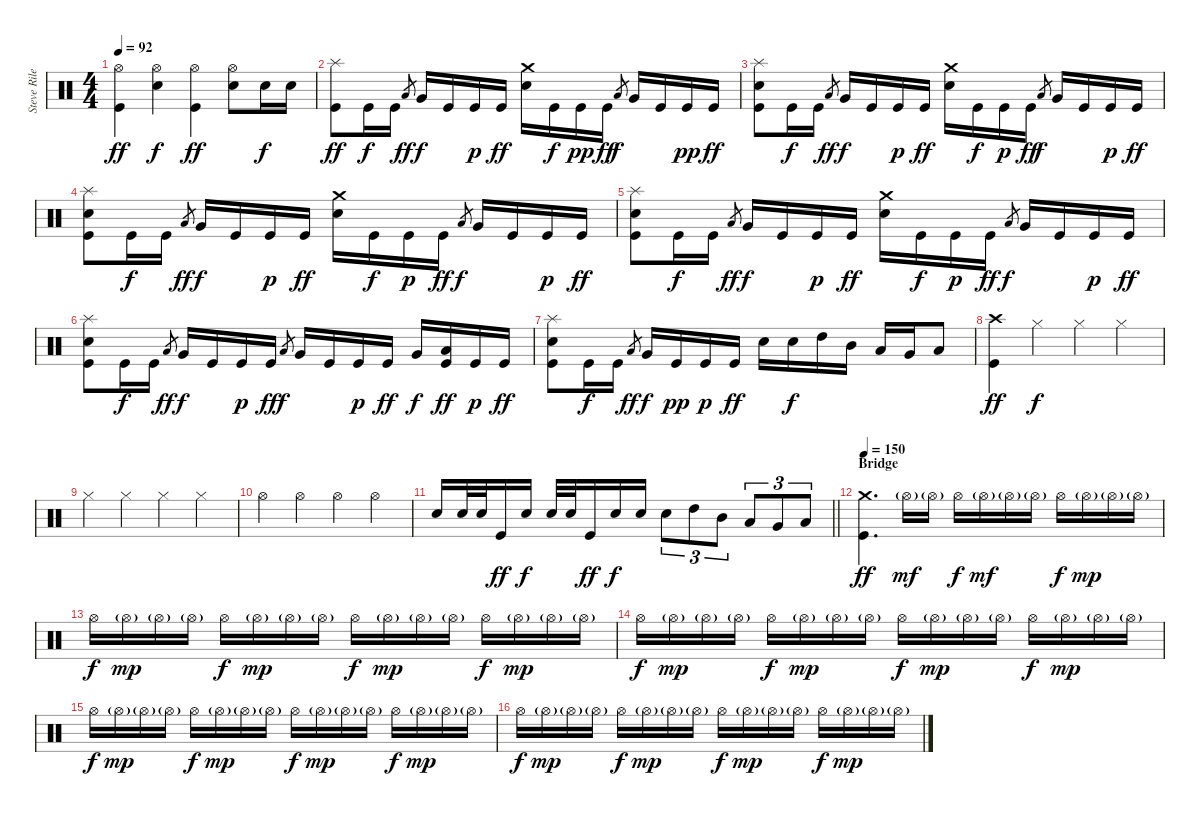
\track ("Steve Riley" "Steve Rile") {instrument percussion}
\staff {score}
\articulation defaults
\ts (4 4)
\tempo 92
\clef neutral
\ks c
("Hi-Hat (open)" "Kick (hit)").4{dy ff} ("Hi-Hat (open)" "Snare (hit) 2").4{dy f} ("Hi-Hat (open)" "Kick (hit)").4{dy ff} ("Hi-Hat (open)" "Snare (hit) 2").8 "Snare (hit) 2".16{dy f} "Snare (hit) 2".16 |
("Splash (hit)" "Kick (hit)").8{dy ff} "Kick (hit)".16{dy f} "Kick (hit)".16 "Low Floor Tom (hit)".8{gr dy ff} "Very Low Tom (hit)".16{dy f} "Kick (hit)".16 "Kick (hit)".16{dy p} "Kick (hit)".16{dy ff} ("Crash medium (hit)" "Snare (hit) 2").16 "Kick (hit)".16{dy f} "Kick (hit)".16{dy pp} "Kick (hit)".16{dy ff} "Low Floor Tom (hit)".8{gr dy f} "Very Low Tom (hit)".16 "Kick (hit)".16 "Kick (hit)".16{dy pp} "Kick (hit)".16{dy ff} |
("Splash (hit)" "Snare (hit) 2" "Kick (hit)").8 "Kick (hit)".16{dy f} "Kick (hit)".16 "Low Floor Tom (hit)".8{gr dy ff} "Very Low Tom (hit)".16{dy f} "Kick (hit)".16 "Kick (hit)".16{dy p} "Kick (hit)".16{dy ff} ("Crash medium (hit)" "Snare (hit) 2").16 "Kick (hit)".16{dy f} "Kick (hit)".16{dy p} "Kick (hit)".16{dy ff} "Low Floor Tom (hit)".8{gr dy f} "Very Low Tom (hit)".16 "Kick (hit)".16 "Kick (hit)".16{dy p} "Kick (hit)".16{dy ff} |
("Splash (hit)" "Snare (hit) 2" "Kick (hit)").8 "Kick (hit)".16{dy f} "Kick (hit)".16 "Low Floor Tom (hit)".8{gr dy ff} "Very Low Tom (hit)".16{dy f} "Kick (hit)".16 "Kick (hit)".16{dy p} "Kick (hit)".16{dy ff} ("Crash medium (hit)" "Snare (hit) 2").16 "Kick (hit)".16{dy f} "Kick (hit)".16{dy p} "Kick (hit)".16{dy ff} "Low Floor Tom (hit)".8{gr dy f} "Very Low Tom (hit)".16 "Kick (hit)".16 "Kick (hit)".16{dy p} "Kick (hit)".16{dy ff} |
("Splash (hit)" "Snare (hit) 2" "Kick (hit)").8 "Kick (hit)".16{dy f} "Kick (hit)".16 "Low Floor Tom (hit)".8{gr dy ff} "Very Low Tom (hit)".16{dy f} "Kick (hit)".16 "Kick (hit)".16{dy p} "Kick (hit)".16{dy ff} ("Crash medium (hit)" "Snare (hit) 2").16 "Kick (hit)".16{dy f} "Kick (hit)".16{dy p} "Kick (hit)".16{dy ff} "Low Floor Tom (hit)".8{gr dy f} "Very Low Tom (hit)".16 "Kick (hit)".16 "Kick (hit)".16{dy p} "Kick (hit)".16{dy ff} |
("Splash (hit)" "Snare (hit) 2" "Kick (hit)").8 "Kick (hit)".16{dy f} "Kick (hit)".16 "Low Floor Tom (hit)".8{gr dy ff} "Very Low Tom (hit)".16{dy f} "Kick (hit)".16 "Kick (hit)".16{dy p} "Kick (hit)".16{dy ff} "Low Floor Tom (hit)".8{gr dy f} "Very Low Tom (hit)".16 "Kick (hit)".16 "Kick (hit)".16{dy p} "Kick (hit)".16{dy ff} "Very Low Tom (hit)".16{dy f} ("Low Floor Tom (hit)" "Kick (hit)").16{dy ff} "Kick (hit)".16{dy p} "Kick (hit)".16{dy ff} |
("Splash (hit)" "Snare (hit) 2" "Kick (hit)").8 "Kick (hit)".16{dy f} "Kick (hit)".16 "Low Floor Tom (hit)".8{gr dy ff} "Very Low Tom (hit)".16{dy f} "Kick (hit)".16{dy pp} "Kick (hit)".16{dy p} "Kick (hit)".16{dy ff} "Snare (hit) 2".16 "Snare (hit) 2".16{dy f} "High Tom (hit)".16 "Mid Tom (hit)".16 "Low Tom (hit)".16 "Very Low Tom (hit)".16 "Low Floor Tom (hit)".8 |
("Crash high (hit)" "Kick (hit)").4{dy ff} "Hi-Hat (closed)".4{dy f} "Hi-Hat (closed)".4 "Hi-Hat (closed)".4 |
"Hi-Hat (closed)".4 "Hi-Hat (closed)".4 "Hi-Hat (closed)".4 "Hi-Hat (closed)".4 |
"Hi-Hat (open)".4 "Hi-Hat (open)".4 "Hi-Hat (open)".4 "Hi-Hat (open)".4 |
\barLineRight lightlight "Snare (hit) 2".16 "Snare (hit) 2".32 "Snare (hit) 2".32 "Kick (hit)".16{dy ff} "Snare (hit) 2".16{dy f} "Snare (hit) 2".32 "Snare (hit) 2".32 "Kick (hit)".16{dy ff} "Snare (hit) 2".16{dy f} "Snare (hit) 2".16 "Snare (hit) 2".8{tu (3 2)} "High Tom (hit)".8{tu (3 2)} "Mid Tom (hit)".8{tu (3 2)} "Low Tom (hit)".8{tu (3 2)} "Very Low Tom (hit)".8{tu (3 2)} "Low Floor Tom (hit)".8{tu (3 2)}
|
\section ("" "Bridge")
\tempo 150
("Crash medium (hit)" "Kick (hit)").4{d dy ff} "Hi-Hat (open)"{g}.16{dy mf} "Hi-Hat (open)"{g}.16 "Hi-Hat (open)".16{dy f} "Hi-Hat (open)"{g}.16{dy mf} "Hi-Hat (open)"{g}.16 "Hi-Hat (open)"{g}.16 "Hi-Hat (open)".16{dy f} "Hi-Hat (open)"{g}.16{dy mp} "Hi-Hat (open)"{g}.16 "Hi-Hat (open)"{g}.16 |
"Hi-Hat (open)".16{dy f} "Hi-Hat (open)"{g}.16{dy mp} "Hi-Hat (open)"{g}.16 "Hi-Hat (open)"{g}.16 "Hi-Hat (open)".16{dy f} "Hi-Hat (open)"{g}.16{dy mp} "Hi-Hat (open)"{g}.16 "Hi-Hat (open)"{g}.16 "Hi-Hat (open)".16{dy f} "Hi-Hat (open)"{g}.16{dy mp} "Hi-Hat (open)"{g}.16 "Hi-Hat (open)"{g}.16 "Hi-Hat (open)".16{dy f} "Hi-Hat (open)"{g}.16{dy mp} "Hi-Hat (open)"{g}.16 "Hi-Hat (open)"{g}.16 |
"Hi-Hat (open)".16{dy f} "Hi-Hat (open)"{g}.16{dy mp} "Hi-Hat (open)"{g}.16 "Hi-Hat (open)"{g}.16 "Hi-Hat (open)".16{dy f} "Hi-Hat (open)"{g}.16{dy mp} "Hi-Hat (open)"{g}.16 "Hi-Hat (open)"{g}.16 "Hi-Hat (open)".16{dy f} "Hi-Hat (open)"{g}.16{dy mp} "Hi-Hat (open)"{g}.16 "Hi-Hat (open)"{g}.16 "Hi-Hat (open)".16{dy f} "Hi-Hat (open)"{g}.16{dy mp} "Hi-Hat (open)"{g}.16 "Hi-Hat (open)"{g}.16 |
"Hi-Hat (open)".16{dy f} "Hi-Hat (open)"{g}.16{dy mp} "Hi-Hat (open)"{g}.16 "Hi-Hat (open)"{g}.16 "Hi-Hat (open)".16{dy f} "Hi-Hat (open)"{g}.16{dy mp} "Hi-Hat (open)"{g}.16 "Hi-Hat (open)"{g}.16 "Hi-Hat (open)".16{dy f} "Hi-Hat (open)"{g}.16{dy mp} "Hi-Hat (open)"{g}.16 "Hi-Hat (open)"{g}.16 "Hi-Hat (open)".16{dy f} "Hi-Hat (open)"{g}.16{dy mp} "Hi-Hat (open)"{g}.16 "Hi-Hat (open)"{g}.16 |
"Hi-Hat (open)".16{dy f} "Hi-Hat (open)"{g}.16{dy mp} "Hi-Hat (open)"{g}.16 "Hi-Hat (open)"{g}.16 "Hi-Hat (open)".16{dy f} "Hi-Hat (open)"{g}.16{dy mp} "Hi-Hat (open)"{g}.16 "Hi-Hat (open)"{g}.16 "Hi-Hat (open)".16{dy f} "Hi-Hat (open)"{g}.16{dy mp} "Hi-Hat (open)"{g}.16 "Hi-Hat (open)"{g}.16 "Hi-Hat (open)".16{dy f} "Hi-Hat (open)"{g}.16{dy mp} "Hi-Hat (open)"{g}.16 "Hi-Hat (open)"{g}.16
